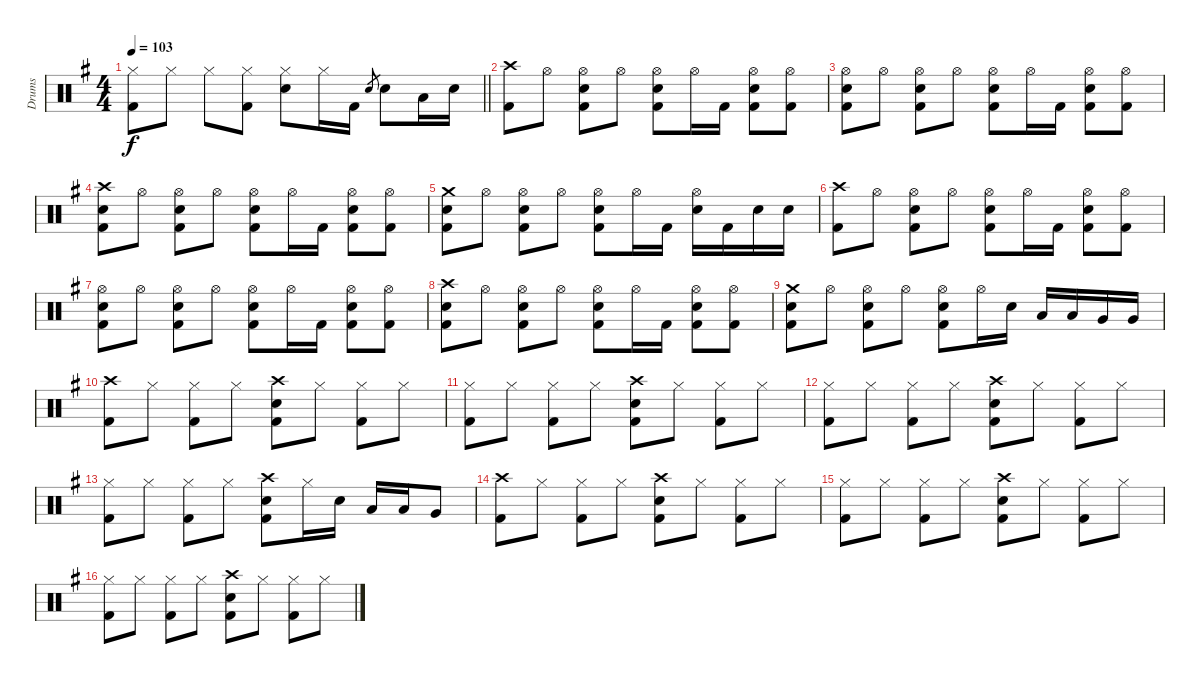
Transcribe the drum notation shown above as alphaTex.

\track ("Drums" "Drums") {instrument percussion}
\staff {score}
\articulation defaults
\ts (4 4)
\tempo 103
\clef neutral
\barLineRight lightlight
\ks eminor
("Hi-Hat (closed)" "Kick (hit) 2").8{dy f} "Hi-Hat (closed)".8 "Hi-Hat (closed)".8 ("Hi-Hat (closed)" "Kick (hit) 2").8 ("Hi-Hat (closed)" "Snare (hit) 2").8 "Hi-Hat (closed)".16 "Kick (hit) 2".16 "Snare (hit) 2".8{gr} "Snare (hit) 2".8 "Low Tom (hit)".16 "Snare (hit) 2".16 |
("Crash high (hit)" "Kick (hit) 2").8 "Hi-Hat (open)".8 ("Hi-Hat (open)" "Snare (hit) 2" "Kick (hit) 2").8 "Hi-Hat (open)".8 ("Hi-Hat (open)" "Snare (hit) 2" "Kick (hit) 2").8 "Hi-Hat (open)".16 "Kick (hit) 2".16 ("Hi-Hat (open)" "Snare (hit) 2" "Kick (hit) 2").8 ("Hi-Hat (open)" "Kick (hit) 2").8 |
("Hi-Hat (open)" "Snare (hit) 2" "Kick (hit) 2").8 "Hi-Hat (open)".8 ("Hi-Hat (open)" "Snare (hit) 2" "Kick (hit) 2").8 "Hi-Hat (open)".8 ("Hi-Hat (open)" "Snare (hit) 2" "Kick (hit) 2").8 "Hi-Hat (open)".16 "Kick (hit) 2".16 ("Hi-Hat (open)" "Snare (hit) 2" "Kick (hit) 2").8 ("Hi-Hat (open)" "Kick (hit) 2").8 |
("Crash high (hit)" "Snare (hit) 2" "Kick (hit) 2").8 "Hi-Hat (open)".8 ("Hi-Hat (open)" "Snare (hit) 2" "Kick (hit) 2").8 "Hi-Hat (open)".8 ("Hi-Hat (open)" "Snare (hit) 2" "Kick (hit) 2").8 "Hi-Hat (open)".16 "Kick (hit) 2".16 ("Hi-Hat (open)" "Snare (hit) 2" "Kick (hit) 2").8 ("Hi-Hat (open)" "Kick (hit) 2").8 |
("Crash medium (hit)" "Snare (hit) 2" "Kick (hit) 2").8 "Hi-Hat (open)".8 ("Hi-Hat (open)" "Snare (hit) 2" "Kick (hit) 2").8 "Hi-Hat (open)".8 ("Hi-Hat (open)" "Snare (hit) 2" "Kick (hit) 2").8 "Hi-Hat (open)".16 "Kick (hit) 2".16 ("Hi-Hat (open)" "Snare (hit) 2").16 "Kick (hit) 2".16 "Snare (hit) 2".16 "Snare (hit) 2".16 |
("Crash high (hit)" "Kick (hit) 2").8 "Hi-Hat (open)".8 ("Hi-Hat (open)" "Snare (hit) 2" "Kick (hit) 2").8 "Hi-Hat (open)".8 ("Hi-Hat (open)" "Snare (hit) 2" "Kick (hit) 2").8 "Hi-Hat (open)".16 "Kick (hit) 2".16 ("Hi-Hat (open)" "Snare (hit) 2" "Kick (hit) 2").8 ("Hi-Hat (open)" "Kick (hit) 2").8 |
("Hi-Hat (open)" "Snare (hit) 2" "Kick (hit) 2").8 "Hi-Hat (open)".8 ("Hi-Hat (open)" "Snare (hit) 2" "Kick (hit) 2").8 "Hi-Hat (open)".8 ("Hi-Hat (open)" "Snare (hit) 2" "Kick (hit) 2").8 "Hi-Hat (open)".16 "Kick (hit) 2".16 ("Hi-Hat (open)" "Snare (hit) 2" "Kick (hit) 2").8 ("Hi-Hat (open)" "Kick (hit) 2").8 |
("Crash high (hit)" "Snare (hit) 2" "Kick (hit) 2").8 "Hi-Hat (open)".8 ("Hi-Hat (open)" "Snare (hit) 2" "Kick (hit) 2").8 "Hi-Hat (open)".8 ("Hi-Hat (open)" "Snare (hit) 2" "Kick (hit) 2").8 "Hi-Hat (open)".16 "Kick (hit) 2".16 ("Hi-Hat (open)" "Snare (hit) 2" "Kick (hit) 2").8 ("Hi-Hat (open)" "Kick (hit) 2").8 |
("Crash medium (hit)" "Snare (hit) 2" "Kick (hit) 2").8 "Hi-Hat (open)".8 ("Hi-Hat (open)" "Snare (hit) 2" "Kick (hit) 2").8 "Hi-Hat (open)".8 ("Hi-Hat (open)" "Snare (hit) 2" "Kick (hit) 2").8 "Hi-Hat (open)".16 "Snare (hit) 2".16 "Low Tom (hit)".16 "Low Tom (hit)".16 "Very Low Tom (hit)".16 "Very Low Tom (hit)".16 |
("Crash high (hit)" "Kick (hit) 2").8 "Hi-Hat (closed)".8 ("Hi-Hat (closed)" "Kick (hit) 2").8 "Hi-Hat (closed)".8 ("Crash high (hit)" "Snare (hit) 2" "Kick (hit) 2").8 "Hi-Hat (closed)".8 ("Hi-Hat (closed)" "Kick (hit) 2").8 "Hi-Hat (closed)".8 |
("Hi-Hat (closed)" "Kick (hit) 2").8 "Hi-Hat (closed)".8 ("Hi-Hat (closed)" "Kick (hit) 2").8 "Hi-Hat (closed)".8 ("Crash high (hit)" "Snare (hit) 2" "Kick (hit) 2").8 "Hi-Hat (closed)".8 ("Hi-Hat (closed)" "Kick (hit) 2").8 "Hi-Hat (closed)".8 |
("Hi-Hat (closed)" "Kick (hit) 2").8 "Hi-Hat (closed)".8 ("Hi-Hat (closed)" "Kick (hit) 2").8 "Hi-Hat (closed)".8 ("Crash high (hit)" "Snare (hit) 2" "Kick (hit) 2").8 "Hi-Hat (closed)".8 ("Hi-Hat (closed)" "Kick (hit) 2").8 "Hi-Hat (closed)".8 |
("Hi-Hat (closed)" "Kick (hit) 2").8 "Hi-Hat (closed)".8 ("Hi-Hat (closed)" "Kick (hit) 2").8 "Hi-Hat (closed)".8 ("Crash high (hit)" "Snare (hit) 2" "Kick (hit) 2").8 "Hi-Hat (closed)".16 "Snare (hit) 2".16 "Low Tom (hit)".16 "Low Tom (hit)".16 "Very Low Tom (hit)".8 |
("Crash high (hit)" "Kick (hit) 2").8 "Hi-Hat (closed)".8 ("Hi-Hat (closed)" "Kick (hit) 2").8 "Hi-Hat (closed)".8 ("Crash high (hit)" "Snare (hit) 2" "Kick (hit) 2").8 "Hi-Hat (closed)".8 ("Hi-Hat (closed)" "Kick (hit) 2").8 "Hi-Hat (closed)".8 |
("Hi-Hat (closed)" "Kick (hit) 2").8 "Hi-Hat (closed)".8 ("Hi-Hat (closed)" "Kick (hit) 2").8 "Hi-Hat (closed)".8 ("Crash high (hit)" "Snare (hit) 2" "Kick (hit) 2").8 "Hi-Hat (closed)".8 ("Hi-Hat (closed)" "Kick (hit) 2").8 "Hi-Hat (closed)".8 |
("Hi-Hat (closed)" "Kick (hit) 2").8 "Hi-Hat (closed)".8 ("Hi-Hat (closed)" "Kick (hit) 2").8 "Hi-Hat (closed)".8 ("Crash high (hit)" "Snare (hit) 2" "Kick (hit) 2").8 "Hi-Hat (closed)".8 ("Hi-Hat (closed)" "Kick (hit) 2").8 "Hi-Hat (closed)".8
